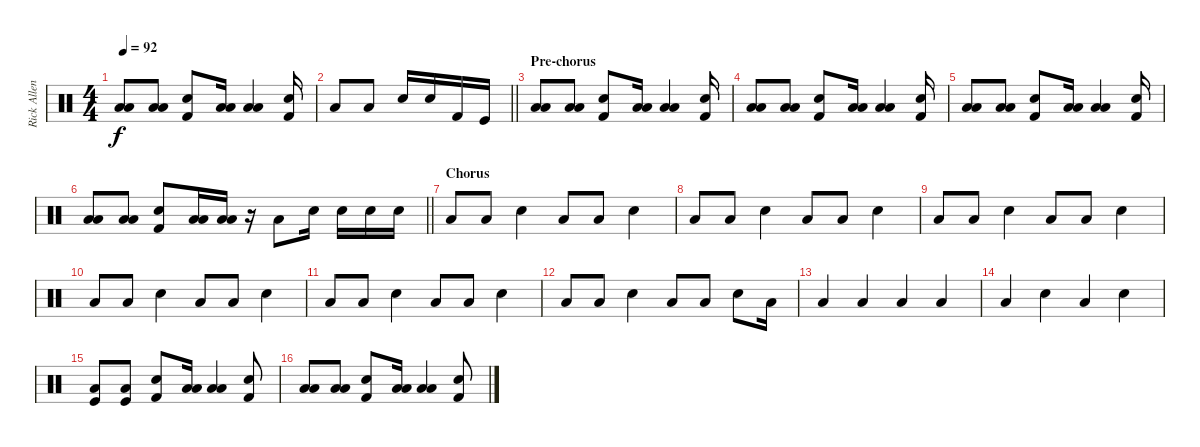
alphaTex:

\track ("Rick Allen" "Rick Allen") {instrument percussion}
\staff {score}
\articulation defaults
\ts (4 4)
\tempo 92
\clef neutral
\ks c
("Low Floor Tom (hit)" "Low Floor Tom (hit)").8{dy f} ("Low Floor Tom (hit)" "Low Floor Tom (hit)").8 ("Snare (hit) 2" "Kick (hit) 2").8 ("Low Floor Tom (hit)" "Low Floor Tom (hit)").16 ("Low Floor Tom (hit)" "Low Floor Tom (hit)").4 ("Kick (hit) 2" "Snare (hit) 2").16 |
\barLineRight lightlight "Low Floor Tom (hit)".8 "Low Floor Tom (hit)".8 "Electric Snare (hit)".16 "Snare (hit) 2".16 "Kick (hit) 2".16 "Kick (hit)".16
|
\section ("" "Pre-chorus")
("Low Floor Tom (hit)" "Low Floor Tom (hit)").8 ("Low Floor Tom (hit)" "Low Floor Tom (hit)").8 ("Snare (hit) 2" "Kick (hit) 2").8 ("Low Floor Tom (hit)" "Low Floor Tom (hit)").16 ("Low Floor Tom (hit)" "Low Floor Tom (hit)").4 ("Kick (hit) 2" "Snare (hit) 2").16 |
("Low Floor Tom (hit)" "Low Floor Tom (hit)").8 ("Low Floor Tom (hit)" "Low Floor Tom (hit)").8 ("Snare (hit) 2" "Kick (hit) 2").8 ("Low Floor Tom (hit)" "Low Floor Tom (hit)").16 ("Low Floor Tom (hit)" "Low Floor Tom (hit)").4 ("Kick (hit) 2" "Snare (hit) 2").16 |
("Low Floor Tom (hit)" "Low Floor Tom (hit)").8 ("Low Floor Tom (hit)" "Low Floor Tom (hit)").8 ("Snare (hit) 2" "Kick (hit) 2").8 ("Low Floor Tom (hit)" "Low Floor Tom (hit)").16 ("Low Floor Tom (hit)" "Low Floor Tom (hit)").4 ("Kick (hit) 2" "Snare (hit) 2").16 |
\barLineRight lightlight
("Low Floor Tom (hit)" "Low Floor Tom (hit)").8 ("Low Floor Tom (hit)" "Low Floor Tom (hit)").8 ("Snare (hit) 2" "Kick (hit) 2").8 ("Low Floor Tom (hit)" "Low Floor Tom (hit)").16 ("Low Floor Tom (hit)" "Low Floor Tom (hit)").16 r.16 "Low Floor Tom (hit)".8 "Snare (hit) 2".16 "Snare (hit) 2".16 "Snare (hit) 2".16 "Snare (hit) 2".16 |
\section ("" "Chorus")
"Low Floor Tom (hit)".8 "Low Floor Tom (hit)".8 "Snare (hit) 2".4 "Low Floor Tom (hit)".8 "Low Floor Tom (hit)".8 "Snare (hit) 2".4 |
"Low Floor Tom (hit)".8 "Low Floor Tom (hit)".8 "Snare (hit) 2".4 "Low Floor Tom (hit)".8 "Low Floor Tom (hit)".8 "Snare (hit) 2".4 |
"Low Floor Tom (hit)".8 "Low Floor Tom (hit)".8 "Snare (hit) 2".4 "Low Floor Tom (hit)".8 "Low Floor Tom (hit)".8 "Snare (hit) 2".4 |
"Low Floor Tom (hit)".8 "Low Floor Tom (hit)".8 "Snare (hit) 2".4 "Low Floor Tom (hit)".8 "Low Floor Tom (hit)".8 "Snare (hit) 2".4 |
"Low Floor Tom (hit)".8 "Low Floor Tom (hit)".8 "Snare (hit) 2".4 "Low Floor Tom (hit)".8 "Low Floor Tom (hit)".8 "Snare (hit) 2".4 |
"Low Floor Tom (hit)".8 "Low Floor Tom (hit)".8 "Snare (hit) 2".4 "Low Floor Tom (hit)".8 "Low Floor Tom (hit)".8 "Snare (hit) 2".8 "Low Floor Tom (hit)".16 |
"Low Floor Tom (hit)".4 "Low Floor Tom (hit)".4 "Low Floor Tom (hit)".4 "Low Floor Tom (hit)".4 |
"Low Floor Tom (hit)".4 "Snare (hit) 2".4 "Low Floor Tom (hit)".4 "Snare (hit) 2".4 |
("Low Floor Tom (hit)" "Kick (hit)").8 ("Low Floor Tom (hit)" "Kick (hit)").8 ("Snare (hit) 2" "Kick (hit) 2").8 ("Low Floor Tom (hit)" "Low Floor Tom (hit)").16 ("Low Floor Tom (hit)" "Low Floor Tom (hit)").4 ("Kick (hit) 2" "Snare (hit) 2").8 |
("Low Floor Tom (hit)" "Low Floor Tom (hit)").8 ("Low Floor Tom (hit)" "Low Floor Tom (hit)").8 ("Snare (hit) 2" "Kick (hit) 2").8 ("Low Floor Tom (hit)" "Low Floor Tom (hit)").16 ("Low Floor Tom (hit)" "Low Floor Tom (hit)").4 ("Kick (hit) 2" "Snare (hit) 2").8
